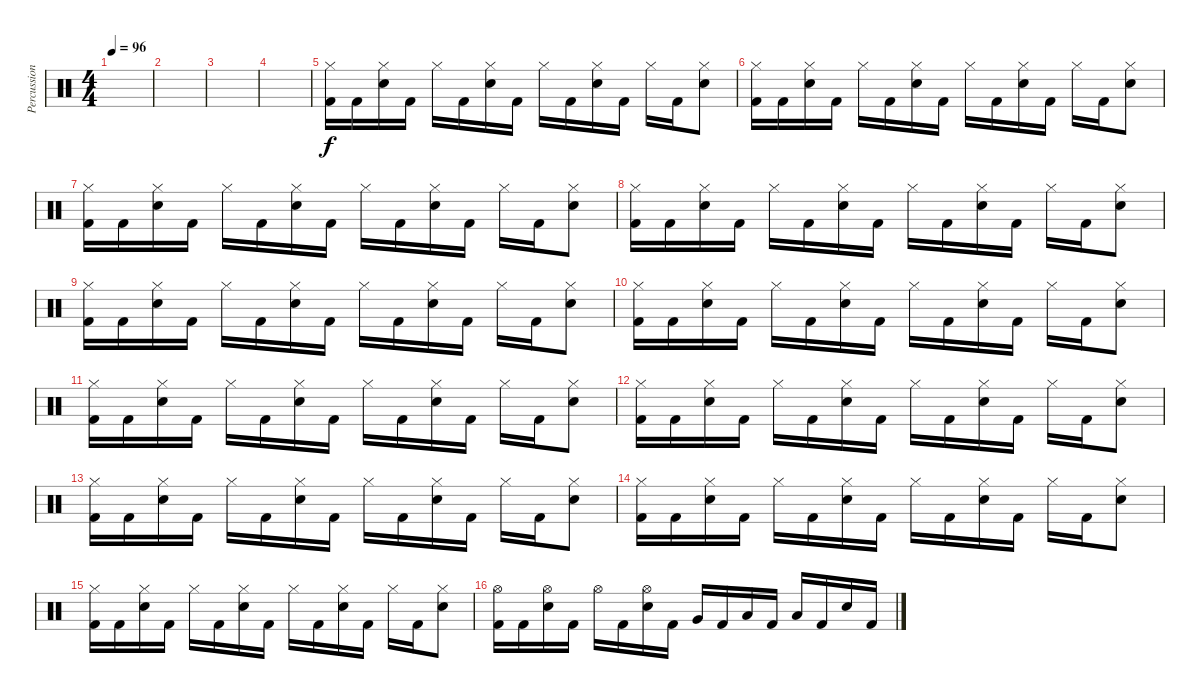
\track ("Percussion" "Percussion") {instrument percussion}
\staff {score}
\articulation defaults
\ts (4 4)
\tempo 96
\clef neutral
\ks c
|
|
|
|
("Hi-Hat (closed)" "Kick (hit) 2").16 "Kick (hit) 2".16 ("Hi-Hat (closed)" "Snare (hit) 2").16 "Kick (hit) 2".16 "Hi-Hat (closed)".16 "Kick (hit) 2".16 ("Hi-Hat (closed)" "Snare (hit) 2").16 "Kick (hit) 2".16 "Hi-Hat (closed)".16 "Kick (hit) 2".16 ("Hi-Hat (closed)" "Snare (hit) 2").16 "Kick (hit) 2".16 "Hi-Hat (closed)".16 "Kick (hit) 2".16 ("Hi-Hat (closed)" "Snare (hit) 2").8 |
("Hi-Hat (closed)" "Kick (hit) 2").16 "Kick (hit) 2".16 ("Hi-Hat (closed)" "Snare (hit) 2").16 "Kick (hit) 2".16 "Hi-Hat (closed)".16 "Kick (hit) 2".16 ("Hi-Hat (closed)" "Snare (hit) 2").16 "Kick (hit) 2".16 "Hi-Hat (closed)".16 "Kick (hit) 2".16 ("Hi-Hat (closed)" "Snare (hit) 2").16 "Kick (hit) 2".16 "Hi-Hat (closed)".16 "Kick (hit) 2".16 ("Hi-Hat (closed)" "Snare (hit) 2").8 |
("Hi-Hat (closed)" "Kick (hit) 2").16 "Kick (hit) 2".16 ("Hi-Hat (closed)" "Snare (hit) 2").16 "Kick (hit) 2".16 "Hi-Hat (closed)".16 "Kick (hit) 2".16 ("Hi-Hat (closed)" "Snare (hit) 2").16 "Kick (hit) 2".16 "Hi-Hat (closed)".16 "Kick (hit) 2".16 ("Hi-Hat (closed)" "Snare (hit) 2").16 "Kick (hit) 2".16 "Hi-Hat (closed)".16 "Kick (hit) 2".16 ("Hi-Hat (closed)" "Snare (hit) 2").8 |
("Hi-Hat (closed)" "Kick (hit) 2").16 "Kick (hit) 2".16 ("Hi-Hat (closed)" "Snare (hit) 2").16 "Kick (hit) 2".16 "Hi-Hat (closed)".16 "Kick (hit) 2".16 ("Hi-Hat (closed)" "Snare (hit) 2").16 "Kick (hit) 2".16 "Hi-Hat (closed)".16 "Kick (hit) 2".16 ("Hi-Hat (closed)" "Snare (hit) 2").16 "Kick (hit) 2".16 "Hi-Hat (closed)".16 "Kick (hit) 2".16 ("Hi-Hat (closed)" "Snare (hit) 2").8 |
("Hi-Hat (closed)" "Kick (hit) 2").16 "Kick (hit) 2".16 ("Hi-Hat (closed)" "Snare (hit) 2").16 "Kick (hit) 2".16 "Hi-Hat (closed)".16 "Kick (hit) 2".16 ("Hi-Hat (closed)" "Snare (hit) 2").16 "Kick (hit) 2".16 "Hi-Hat (closed)".16 "Kick (hit) 2".16 ("Hi-Hat (closed)" "Snare (hit) 2").16 "Kick (hit) 2".16 "Hi-Hat (closed)".16 "Kick (hit) 2".16 ("Hi-Hat (closed)" "Snare (hit) 2").8 |
("Hi-Hat (closed)" "Kick (hit) 2").16 "Kick (hit) 2".16 ("Hi-Hat (closed)" "Snare (hit) 2").16 "Kick (hit) 2".16 "Hi-Hat (closed)".16 "Kick (hit) 2".16 ("Hi-Hat (closed)" "Snare (hit) 2").16 "Kick (hit) 2".16 "Hi-Hat (closed)".16 "Kick (hit) 2".16 ("Hi-Hat (closed)" "Snare (hit) 2").16 "Kick (hit) 2".16 "Hi-Hat (closed)".16 "Kick (hit) 2".16 ("Hi-Hat (closed)" "Snare (hit) 2").8 |
("Hi-Hat (closed)" "Kick (hit) 2").16 "Kick (hit) 2".16 ("Hi-Hat (closed)" "Snare (hit) 2").16 "Kick (hit) 2".16 "Hi-Hat (closed)".16 "Kick (hit) 2".16 ("Hi-Hat (closed)" "Snare (hit) 2").16 "Kick (hit) 2".16 "Hi-Hat (closed)".16 "Kick (hit) 2".16 ("Hi-Hat (closed)" "Snare (hit) 2").16 "Kick (hit) 2".16 "Hi-Hat (closed)".16 "Kick (hit) 2".16 ("Hi-Hat (closed)" "Snare (hit) 2").8 |
("Hi-Hat (closed)" "Kick (hit) 2").16 "Kick (hit) 2".16 ("Hi-Hat (closed)" "Snare (hit) 2").16 "Kick (hit) 2".16 "Hi-Hat (closed)".16 "Kick (hit) 2".16 ("Hi-Hat (closed)" "Snare (hit) 2").16 "Kick (hit) 2".16 "Hi-Hat (closed)".16 "Kick (hit) 2".16 ("Hi-Hat (closed)" "Snare (hit) 2").16 "Kick (hit) 2".16 "Hi-Hat (closed)".16 "Kick (hit) 2".16 ("Hi-Hat (closed)" "Snare (hit) 2").8 |
("Hi-Hat (closed)" "Kick (hit) 2").16 "Kick (hit) 2".16 ("Hi-Hat (closed)" "Snare (hit) 2").16 "Kick (hit) 2".16 "Hi-Hat (closed)".16 "Kick (hit) 2".16 ("Hi-Hat (closed)" "Snare (hit) 2").16 "Kick (hit) 2".16 "Hi-Hat (closed)".16 "Kick (hit) 2".16 ("Hi-Hat (closed)" "Snare (hit) 2").16 "Kick (hit) 2".16 "Hi-Hat (closed)".16 "Kick (hit) 2".16 ("Hi-Hat (closed)" "Snare (hit) 2").8 |
("Hi-Hat (closed)" "Kick (hit) 2").16 "Kick (hit) 2".16 ("Hi-Hat (closed)" "Snare (hit) 2").16 "Kick (hit) 2".16 "Hi-Hat (closed)".16 "Kick (hit) 2".16 ("Hi-Hat (closed)" "Snare (hit) 2").16 "Kick (hit) 2".16 "Hi-Hat (closed)".16 "Kick (hit) 2".16 ("Hi-Hat (closed)" "Snare (hit) 2").16 "Kick (hit) 2".16 "Hi-Hat (closed)".16 "Kick (hit) 2".16 ("Hi-Hat (closed)" "Snare (hit) 2").8 |
("Hi-Hat (closed)" "Kick (hit) 2").16 "Kick (hit) 2".16 ("Hi-Hat (closed)" "Snare (hit) 2").16 "Kick (hit) 2".16 "Hi-Hat (closed)".16 "Kick (hit) 2".16 ("Hi-Hat (closed)" "Snare (hit) 2").16 "Kick (hit) 2".16 "Hi-Hat (closed)".16 "Kick (hit) 2".16 ("Hi-Hat (closed)" "Snare (hit) 2").16 "Kick (hit) 2".16 "Hi-Hat (closed)".16 "Kick (hit) 2".16 ("Hi-Hat (closed)" "Snare (hit) 2").8 |
("Hi-Hat (open)" "Kick (hit) 2").16 "Kick (hit) 2".16 ("Hi-Hat (open)" "Snare (hit) 2").16 "Kick (hit) 2".16 "Hi-Hat (open)".16 "Kick (hit) 2".16 ("Hi-Hat (open)" "Snare (hit) 2").16 "Kick (hit) 2".16 "Very Low Tom (hit)".16 "Kick (hit) 2".16 "Low Floor Tom (hit)".16 "Kick (hit) 2".16 "Low Floor Tom (hit)".16 "Kick (hit) 2".16 "Snare (hit) 2".16 "Kick (hit) 2".16
